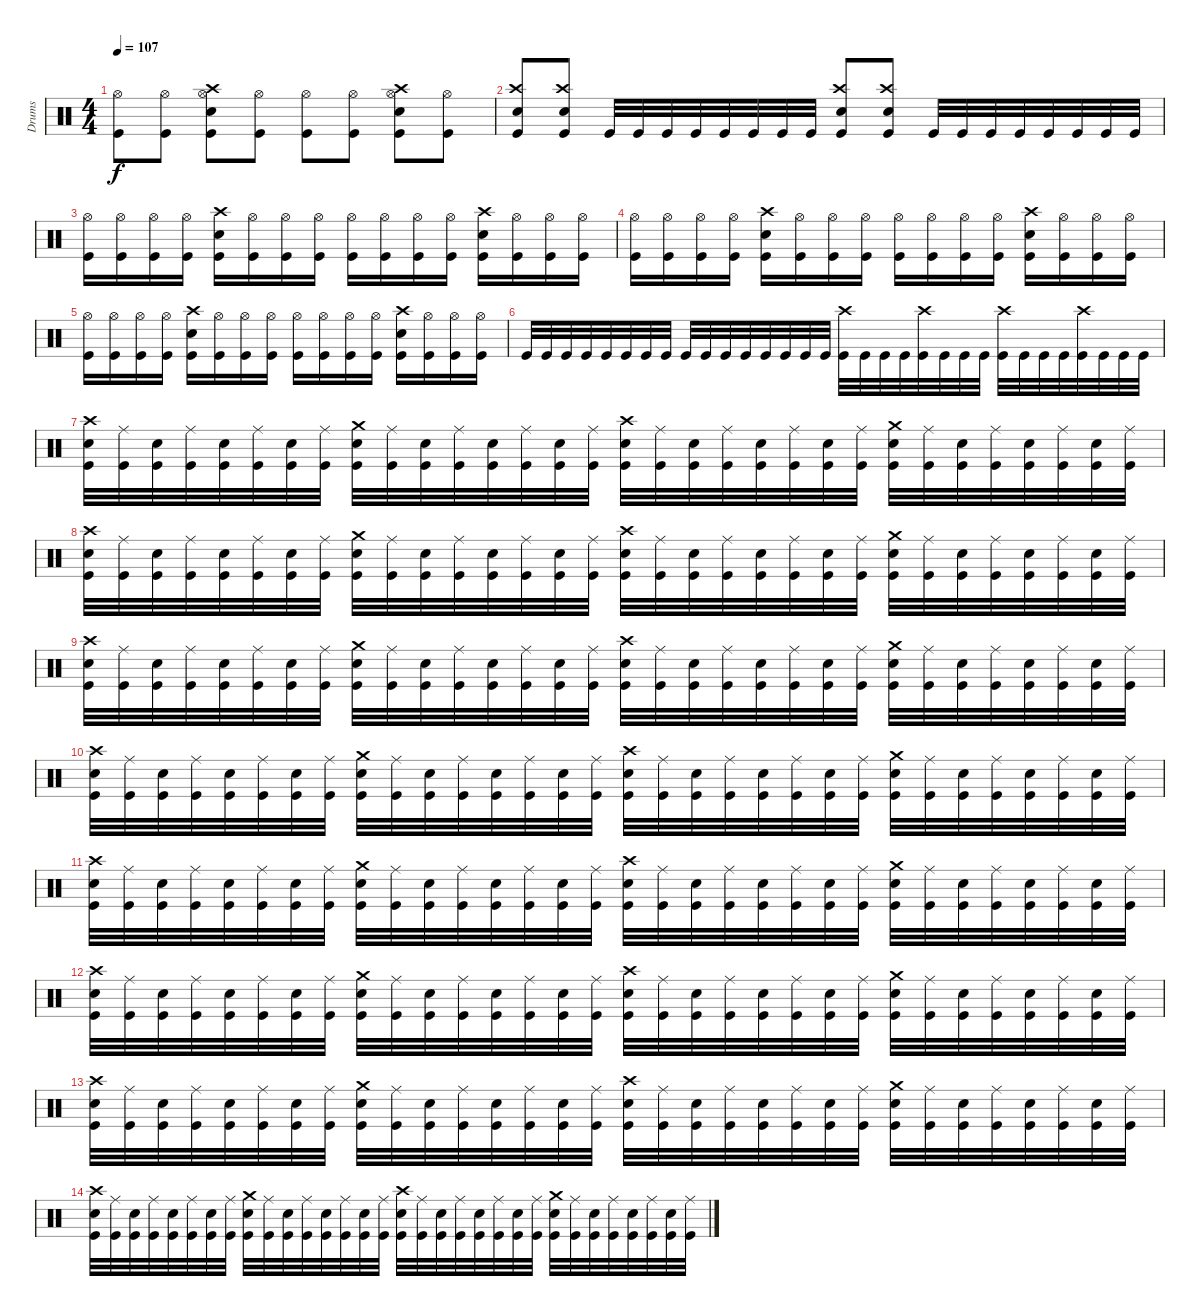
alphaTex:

\track ("Drums" "Drums") {instrument percussion}
\staff
\articulation defaults
\ts (4 4)
\tempo 107
\clef neutral
\ks c
("Hi-Hat (open)" "Kick (hit)").8{dy f} ("Hi-Hat (open)" "Kick (hit)").8 ("Crash high (hit)" "Hi-Hat (open)" "Electric Snare (hit)" "Kick (hit)").8 ("Hi-Hat (open)" "Kick (hit)").8 ("Hi-Hat (open)" "Kick (hit)").8 ("Hi-Hat (open)" "Kick (hit)").8 ("Crash high (hit)" "Hi-Hat (open)" "Electric Snare (hit)" "Kick (hit)").8 ("Hi-Hat (open)" "Kick (hit)").8 |
("Crash high (hit)" "Electric Snare (hit)" "Kick (hit)").8{volume 15} ("Crash high (hit)" "Electric Snare (hit)" "Kick (hit)").8 "Kick (hit)".32 "Kick (hit)".32 "Kick (hit)".32 "Kick (hit)".32 "Kick (hit)".32 "Kick (hit)".32 "Kick (hit)".32 "Kick (hit)".32 ("Crash high (hit)" "Electric Snare (hit)" "Kick (hit)").8 ("Crash high (hit)" "Electric Snare (hit)" "Kick (hit)").8 "Kick (hit)".32 "Kick (hit)".32 "Kick (hit)".32 "Kick (hit)".32 "Kick (hit)".32 "Kick (hit)".32 "Kick (hit)".32 "Kick (hit)".32 |
("Hi-Hat (open)" "Kick (hit)").16 ("Hi-Hat (open)" "Kick (hit)").16 ("Hi-Hat (open)" "Kick (hit)").16 ("Hi-Hat (open)" "Kick (hit)").16 ("Crash high (hit)" "Electric Snare (hit)" "Kick (hit)").16 ("Hi-Hat (open)" "Kick (hit)").16 ("Hi-Hat (open)" "Kick (hit)").16 ("Hi-Hat (open)" "Kick (hit)").16 ("Hi-Hat (open)" "Kick (hit)").16 ("Hi-Hat (open)" "Kick (hit)").16 ("Hi-Hat (open)" "Kick (hit)").16 ("Hi-Hat (open)" "Kick (hit)").16 ("Crash high (hit)" "Electric Snare (hit)" "Kick (hit)").16 ("Hi-Hat (open)" "Kick (hit)").16 ("Hi-Hat (open)" "Kick (hit)").16 ("Hi-Hat (open)" "Kick (hit)").16 |
("Hi-Hat (open)" "Kick (hit)").16 ("Hi-Hat (open)" "Kick (hit)").16 ("Hi-Hat (open)" "Kick (hit)").16 ("Hi-Hat (open)" "Kick (hit)").16 ("Crash high (hit)" "Electric Snare (hit)" "Kick (hit)").16 ("Hi-Hat (open)" "Kick (hit)").16 ("Hi-Hat (open)" "Kick (hit)").16 ("Hi-Hat (open)" "Kick (hit)").16 ("Hi-Hat (open)" "Kick (hit)").16 ("Hi-Hat (open)" "Kick (hit)").16 ("Hi-Hat (open)" "Kick (hit)").16 ("Hi-Hat (open)" "Kick (hit)").16 ("Crash high (hit)" "Electric Snare (hit)" "Kick (hit)").16 ("Hi-Hat (open)" "Kick (hit)").16 ("Hi-Hat (open)" "Kick (hit)").16 ("Hi-Hat (open)" "Kick (hit)").16 |
("Hi-Hat (open)" "Kick (hit)").16 ("Hi-Hat (open)" "Kick (hit)").16 ("Hi-Hat (open)" "Kick (hit)").16 ("Hi-Hat (open)" "Kick (hit)").16 ("Crash high (hit)" "Electric Snare (hit)" "Kick (hit)").16 ("Hi-Hat (open)" "Kick (hit)").16 ("Hi-Hat (open)" "Kick (hit)").16 ("Hi-Hat (open)" "Kick (hit)").16 ("Hi-Hat (open)" "Kick (hit)").16 ("Hi-Hat (open)" "Kick (hit)").16 ("Hi-Hat (open)" "Kick (hit)").16 ("Hi-Hat (open)" "Kick (hit)").16 ("Crash high (hit)" "Electric Snare (hit)" "Kick (hit)").16 ("Hi-Hat (open)" "Kick (hit)").16 ("Hi-Hat (open)" "Kick (hit)").16 ("Hi-Hat (open)" "Kick (hit)").16 |
"Kick (hit)".32 "Kick (hit)".32 "Kick (hit)".32 "Kick (hit)".32 "Kick (hit)".32 "Kick (hit)".32 "Kick (hit)".32 "Kick (hit)".32 "Kick (hit)".32 "Kick (hit)".32 "Kick (hit)".32 "Kick (hit)".32 "Kick (hit)".32 "Kick (hit)".32 "Kick (hit)".32 "Kick (hit)".32 ("Crash high (hit)" "Kick (hit)").32 "Kick (hit)".32 "Kick (hit)".32 "Kick (hit)".32 ("Crash high (hit)" "Kick (hit)").32 "Kick (hit)".32 "Kick (hit)".32 "Kick (hit)".32 ("Crash high (hit)" "Kick (hit)").32 "Kick (hit)".32 "Kick (hit)".32 "Kick (hit)".32 ("Crash high (hit)" "Kick (hit)").32 "Kick (hit)".32 "Kick (hit)".32 "Kick (hit)".32 |
("Crash high (hit)" "Electric Snare (hit)" "Kick (hit)").32 ("Ride (middle)" "Kick (hit)").32 ("Electric Snare (hit)" "Kick (hit)").32 ("Ride (middle)" "Kick (hit)").32 ("Electric Snare (hit)" "Kick (hit)").32 ("Ride (middle)" "Kick (hit)").32 ("Electric Snare (hit)" "Kick (hit)").32 ("Ride (middle)" "Kick (hit)").32 ("Crash medium (hit)" "Electric Snare (hit)" "Kick (hit)").32 ("Ride (middle)" "Kick (hit)").32 ("Electric Snare (hit)" "Kick (hit)").32 ("Ride (middle)" "Kick (hit)").32 ("Electric Snare (hit)" "Kick (hit)").32 ("Ride (middle)" "Kick (hit)").32 ("Electric Snare (hit)" "Kick (hit)").32 ("Ride (middle)" "Kick (hit)").32 ("Crash high (hit)" "Electric Snare (hit)" "Kick (hit)").32 ("Ride (middle)" "Kick (hit)").32 ("Electric Snare (hit)" "Kick (hit)").32 ("Ride (middle)" "Kick (hit)").32 ("Electric Snare (hit)" "Kick (hit)").32 ("Ride (middle)" "Kick (hit)").32 ("Electric Snare (hit)" "Kick (hit)").32 ("Ride (middle)" "Kick (hit)").32 ("Crash medium (hit)" "Electric Snare (hit)" "Kick (hit)").32 ("Ride (middle)" "Kick (hit)").32 ("Electric Snare (hit)" "Kick (hit)").32 ("Ride (middle)" "Kick (hit)").32 ("Electric Snare (hit)" "Kick (hit)").32 ("Ride (middle)" "Kick (hit)").32 ("Electric Snare (hit)" "Kick (hit)").32 ("Ride (middle)" "Kick (hit)").32 |
("Crash high (hit)" "Electric Snare (hit)" "Kick (hit)").32 ("Ride (middle)" "Kick (hit)").32 ("Electric Snare (hit)" "Kick (hit)").32 ("Ride (middle)" "Kick (hit)").32 ("Electric Snare (hit)" "Kick (hit)").32 ("Ride (middle)" "Kick (hit)").32 ("Electric Snare (hit)" "Kick (hit)").32 ("Ride (middle)" "Kick (hit)").32 ("Crash medium (hit)" "Electric Snare (hit)" "Kick (hit)").32 ("Ride (middle)" "Kick (hit)").32 ("Electric Snare (hit)" "Kick (hit)").32 ("Ride (middle)" "Kick (hit)").32 ("Electric Snare (hit)" "Kick (hit)").32 ("Ride (middle)" "Kick (hit)").32 ("Electric Snare (hit)" "Kick (hit)").32 ("Ride (middle)" "Kick (hit)").32 ("Crash high (hit)" "Electric Snare (hit)" "Kick (hit)").32 ("Ride (middle)" "Kick (hit)").32 ("Electric Snare (hit)" "Kick (hit)").32 ("Ride (middle)" "Kick (hit)").32 ("Electric Snare (hit)" "Kick (hit)").32 ("Ride (middle)" "Kick (hit)").32 ("Electric Snare (hit)" "Kick (hit)").32 ("Ride (middle)" "Kick (hit)").32 ("Crash medium (hit)" "Electric Snare (hit)" "Kick (hit)").32 ("Ride (middle)" "Kick (hit)").32 ("Electric Snare (hit)" "Kick (hit)").32 ("Ride (middle)" "Kick (hit)").32 ("Electric Snare (hit)" "Kick (hit)").32 ("Ride (middle)" "Kick (hit)").32 ("Electric Snare (hit)" "Kick (hit)").32 ("Ride (middle)" "Kick (hit)").32 |
("Crash high (hit)" "Electric Snare (hit)" "Kick (hit)").32 ("Ride (middle)" "Kick (hit)").32 ("Electric Snare (hit)" "Kick (hit)").32 ("Ride (middle)" "Kick (hit)").32 ("Electric Snare (hit)" "Kick (hit)").32 ("Ride (middle)" "Kick (hit)").32 ("Electric Snare (hit)" "Kick (hit)").32 ("Ride (middle)" "Kick (hit)").32 ("Crash medium (hit)" "Electric Snare (hit)" "Kick (hit)").32 ("Ride (middle)" "Kick (hit)").32 ("Electric Snare (hit)" "Kick (hit)").32 ("Ride (middle)" "Kick (hit)").32 ("Electric Snare (hit)" "Kick (hit)").32 ("Ride (middle)" "Kick (hit)").32 ("Electric Snare (hit)" "Kick (hit)").32 ("Ride (middle)" "Kick (hit)").32 ("Crash high (hit)" "Electric Snare (hit)" "Kick (hit)").32 ("Ride (middle)" "Kick (hit)").32 ("Electric Snare (hit)" "Kick (hit)").32 ("Ride (middle)" "Kick (hit)").32 ("Electric Snare (hit)" "Kick (hit)").32 ("Ride (middle)" "Kick (hit)").32 ("Electric Snare (hit)" "Kick (hit)").32 ("Ride (middle)" "Kick (hit)").32 ("Crash medium (hit)" "Electric Snare (hit)" "Kick (hit)").32 ("Ride (middle)" "Kick (hit)").32 ("Electric Snare (hit)" "Kick (hit)").32 ("Ride (middle)" "Kick (hit)").32 ("Electric Snare (hit)" "Kick (hit)").32 ("Ride (middle)" "Kick (hit)").32 ("Electric Snare (hit)" "Kick (hit)").32 ("Ride (middle)" "Kick (hit)").32 |
("Crash high (hit)" "Electric Snare (hit)" "Kick (hit)").32 ("Ride (middle)" "Kick (hit)").32 ("Electric Snare (hit)" "Kick (hit)").32 ("Ride (middle)" "Kick (hit)").32 ("Electric Snare (hit)" "Kick (hit)").32 ("Ride (middle)" "Kick (hit)").32 ("Electric Snare (hit)" "Kick (hit)").32 ("Ride (middle)" "Kick (hit)").32 ("Crash medium (hit)" "Electric Snare (hit)" "Kick (hit)").32 ("Ride (middle)" "Kick (hit)").32 ("Electric Snare (hit)" "Kick (hit)").32 ("Ride (middle)" "Kick (hit)").32 ("Electric Snare (hit)" "Kick (hit)").32 ("Ride (middle)" "Kick (hit)").32 ("Electric Snare (hit)" "Kick (hit)").32 ("Ride (middle)" "Kick (hit)").32 ("Crash high (hit)" "Electric Snare (hit)" "Kick (hit)").32 ("Ride (middle)" "Kick (hit)").32 ("Electric Snare (hit)" "Kick (hit)").32 ("Ride (middle)" "Kick (hit)").32 ("Electric Snare (hit)" "Kick (hit)").32 ("Ride (middle)" "Kick (hit)").32 ("Electric Snare (hit)" "Kick (hit)").32 ("Ride (middle)" "Kick (hit)").32 ("Crash medium (hit)" "Electric Snare (hit)" "Kick (hit)").32 ("Ride (middle)" "Kick (hit)").32 ("Electric Snare (hit)" "Kick (hit)").32 ("Ride (middle)" "Kick (hit)").32 ("Electric Snare (hit)" "Kick (hit)").32 ("Ride (middle)" "Kick (hit)").32 ("Electric Snare (hit)" "Kick (hit)").32 ("Ride (middle)" "Kick (hit)").32 |
("Crash high (hit)" "Electric Snare (hit)" "Kick (hit)").32 ("Ride (middle)" "Kick (hit)").32 ("Electric Snare (hit)" "Kick (hit)").32 ("Ride (middle)" "Kick (hit)").32 ("Electric Snare (hit)" "Kick (hit)").32 ("Ride (middle)" "Kick (hit)").32 ("Electric Snare (hit)" "Kick (hit)").32 ("Ride (middle)" "Kick (hit)").32 ("Crash medium (hit)" "Electric Snare (hit)" "Kick (hit)").32 ("Ride (middle)" "Kick (hit)").32 ("Electric Snare (hit)" "Kick (hit)").32 ("Ride (middle)" "Kick (hit)").32 ("Electric Snare (hit)" "Kick (hit)").32 ("Ride (middle)" "Kick (hit)").32 ("Electric Snare (hit)" "Kick (hit)").32 ("Ride (middle)" "Kick (hit)").32 ("Crash high (hit)" "Electric Snare (hit)" "Kick (hit)").32 ("Ride (middle)" "Kick (hit)").32 ("Electric Snare (hit)" "Kick (hit)").32 ("Ride (middle)" "Kick (hit)").32 ("Electric Snare (hit)" "Kick (hit)").32 ("Ride (middle)" "Kick (hit)").32 ("Electric Snare (hit)" "Kick (hit)").32 ("Ride (middle)" "Kick (hit)").32 ("Crash medium (hit)" "Electric Snare (hit)" "Kick (hit)").32 ("Ride (middle)" "Kick (hit)").32 ("Electric Snare (hit)" "Kick (hit)").32 ("Ride (middle)" "Kick (hit)").32 ("Electric Snare (hit)" "Kick (hit)").32 ("Ride (middle)" "Kick (hit)").32 ("Electric Snare (hit)" "Kick (hit)").32 ("Ride (middle)" "Kick (hit)").32 |
("Crash high (hit)" "Electric Snare (hit)" "Kick (hit)").32 ("Ride (middle)" "Kick (hit)").32 ("Electric Snare (hit)" "Kick (hit)").32 ("Ride (middle)" "Kick (hit)").32 ("Electric Snare (hit)" "Kick (hit)").32 ("Ride (middle)" "Kick (hit)").32 ("Electric Snare (hit)" "Kick (hit)").32 ("Ride (middle)" "Kick (hit)").32 ("Crash medium (hit)" "Electric Snare (hit)" "Kick (hit)").32 ("Ride (middle)" "Kick (hit)").32 ("Electric Snare (hit)" "Kick (hit)").32 ("Ride (middle)" "Kick (hit)").32 ("Electric Snare (hit)" "Kick (hit)").32 ("Ride (middle)" "Kick (hit)").32 ("Electric Snare (hit)" "Kick (hit)").32 ("Ride (middle)" "Kick (hit)").32 ("Crash high (hit)" "Electric Snare (hit)" "Kick (hit)").32 ("Ride (middle)" "Kick (hit)").32 ("Electric Snare (hit)" "Kick (hit)").32 ("Ride (middle)" "Kick (hit)").32 ("Electric Snare (hit)" "Kick (hit)").32 ("Ride (middle)" "Kick (hit)").32 ("Electric Snare (hit)" "Kick (hit)").32 ("Ride (middle)" "Kick (hit)").32 ("Crash medium (hit)" "Electric Snare (hit)" "Kick (hit)").32 ("Ride (middle)" "Kick (hit)").32 ("Electric Snare (hit)" "Kick (hit)").32 ("Ride (middle)" "Kick (hit)").32 ("Electric Snare (hit)" "Kick (hit)").32 ("Ride (middle)" "Kick (hit)").32 ("Electric Snare (hit)" "Kick (hit)").32 ("Ride (middle)" "Kick (hit)").32 |
("Crash high (hit)" "Electric Snare (hit)" "Kick (hit)").32 ("Ride (middle)" "Kick (hit)").32 ("Electric Snare (hit)" "Kick (hit)").32 ("Ride (middle)" "Kick (hit)").32 ("Electric Snare (hit)" "Kick (hit)").32 ("Ride (middle)" "Kick (hit)").32 ("Electric Snare (hit)" "Kick (hit)").32 ("Ride (middle)" "Kick (hit)").32 ("Crash medium (hit)" "Electric Snare (hit)" "Kick (hit)").32 ("Ride (middle)" "Kick (hit)").32 ("Electric Snare (hit)" "Kick (hit)").32 ("Ride (middle)" "Kick (hit)").32 ("Electric Snare (hit)" "Kick (hit)").32 ("Ride (middle)" "Kick (hit)").32 ("Electric Snare (hit)" "Kick (hit)").32 ("Ride (middle)" "Kick (hit)").32 ("Crash high (hit)" "Electric Snare (hit)" "Kick (hit)").32 ("Ride (middle)" "Kick (hit)").32 ("Electric Snare (hit)" "Kick (hit)").32 ("Ride (middle)" "Kick (hit)").32 ("Electric Snare (hit)" "Kick (hit)").32 ("Ride (middle)" "Kick (hit)").32 ("Electric Snare (hit)" "Kick (hit)").32 ("Ride (middle)" "Kick (hit)").32 ("Crash medium (hit)" "Electric Snare (hit)" "Kick (hit)").32 ("Ride (middle)" "Kick (hit)").32 ("Electric Snare (hit)" "Kick (hit)").32 ("Ride (middle)" "Kick (hit)").32 ("Electric Snare (hit)" "Kick (hit)").32 ("Ride (middle)" "Kick (hit)").32 ("Electric Snare (hit)" "Kick (hit)").32 ("Ride (middle)" "Kick (hit)").32 |
("Crash high (hit)" "Electric Snare (hit)" "Kick (hit)").32 ("Ride (middle)" "Kick (hit)").32 ("Electric Snare (hit)" "Kick (hit)").32 ("Ride (middle)" "Kick (hit)").32 ("Electric Snare (hit)" "Kick (hit)").32 ("Ride (middle)" "Kick (hit)").32 ("Electric Snare (hit)" "Kick (hit)").32 ("Ride (middle)" "Kick (hit)").32 ("Crash medium (hit)" "Electric Snare (hit)" "Kick (hit)").32 ("Ride (middle)" "Kick (hit)").32 ("Electric Snare (hit)" "Kick (hit)").32 ("Ride (middle)" "Kick (hit)").32 ("Electric Snare (hit)" "Kick (hit)").32 ("Ride (middle)" "Kick (hit)").32 ("Electric Snare (hit)" "Kick (hit)").32 ("Ride (middle)" "Kick (hit)").32 ("Crash high (hit)" "Electric Snare (hit)" "Kick (hit)").32 ("Ride (middle)" "Kick (hit)").32 ("Electric Snare (hit)" "Kick (hit)").32 ("Ride (middle)" "Kick (hit)").32 ("Electric Snare (hit)" "Kick (hit)").32 ("Ride (middle)" "Kick (hit)").32 ("Electric Snare (hit)" "Kick (hit)").32 ("Ride (middle)" "Kick (hit)").32 ("Crash medium (hit)" "Electric Snare (hit)" "Kick (hit)").32 ("Ride (middle)" "Kick (hit)").32 ("Electric Snare (hit)" "Kick (hit)").32 ("Ride (middle)" "Kick (hit)").32 ("Electric Snare (hit)" "Kick (hit)").32 ("Ride (middle)" "Kick (hit)").32 ("Electric Snare (hit)" "Kick (hit)").32 ("Ride (middle)" "Kick (hit)").32
